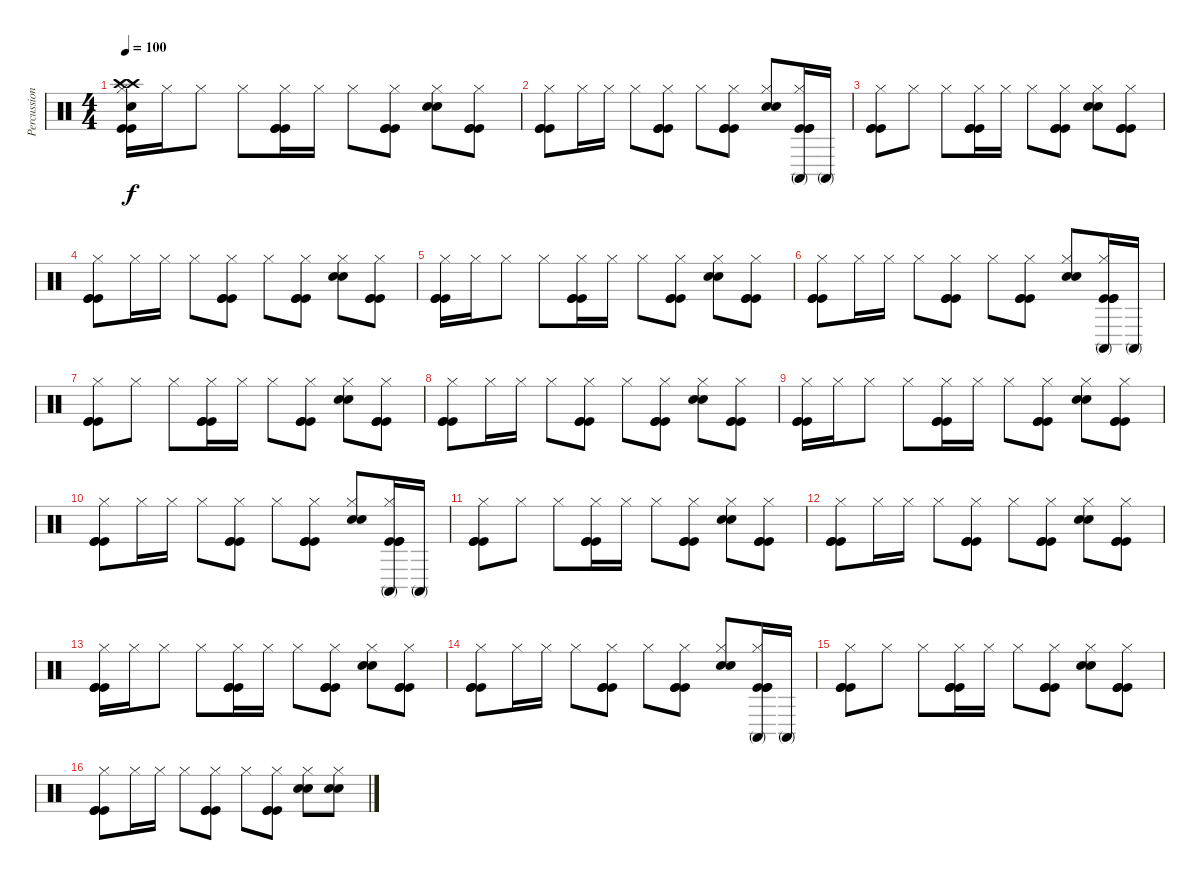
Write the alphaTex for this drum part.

\track ("Percussion" "Percussion") {instrument percussion}
\staff {score}
\articulation defaults
\ts (4 4)
\tempo 100
\clef neutral
\ks c
("Hi-Hat (closed)" "Crash high (hit)" "Crash high (hit)" "Electric Snare (hit)" "Kick (hit)" "Kick (hit)").16{dy f} "Hi-Hat (closed)".16 "Hi-Hat (closed)".8 "Hi-Hat (closed)".8 ("Hi-Hat (closed)" "Kick (hit)" "Kick (hit)" "Kick (hit)").16 "Hi-Hat (closed)".16 "Hi-Hat (closed)".8 ("Hi-Hat (closed)" "Kick (hit)" "Kick (hit)" "Kick (hit)").8 ("Hi-Hat (closed)" "Electric Snare (hit)" "Electric Snare (hit)").8 ("Hi-Hat (closed)" "Kick (hit)" "Kick (hit)" "Kick (hit)").8 |
("Hi-Hat (closed)" "Kick (hit)" "Kick (hit)" "Kick (hit)").8 "Hi-Hat (closed)".16 "Hi-Hat (closed)".16 "Hi-Hat (closed)".8 ("Hi-Hat (closed)" "Kick (hit)" "Kick (hit)" "Kick (hit)").8 "Hi-Hat (closed)".8 ("Hi-Hat (closed)" "Kick (hit)" "Kick (hit)" "Kick (hit)").8 ("Hi-Hat (closed)" "Electric Snare (hit)" "Electric Snare (hit)").8 ("Hi-Hat (closed)" "Conga high (mute)" "Kick (hit)" "Kick (hit)" "Kick (hit)").16 "Conga high (mute)".16 |
("Hi-Hat (closed)" "Kick (hit)" "Kick (hit)" "Kick (hit)").8 "Hi-Hat (closed)".8 "Hi-Hat (closed)".8 ("Hi-Hat (closed)" "Kick (hit)" "Kick (hit)" "Kick (hit)").16 "Hi-Hat (closed)".16 "Hi-Hat (closed)".8 ("Hi-Hat (closed)" "Kick (hit)" "Kick (hit)" "Kick (hit)").8 ("Hi-Hat (closed)" "Electric Snare (hit)" "Electric Snare (hit)").8 ("Hi-Hat (closed)" "Kick (hit)" "Kick (hit)" "Kick (hit)").8 |
("Hi-Hat (closed)" "Kick (hit)" "Kick (hit)" "Kick (hit)").8 "Hi-Hat (closed)".16 "Hi-Hat (closed)".16 "Hi-Hat (closed)".8 ("Hi-Hat (closed)" "Kick (hit)" "Kick (hit)" "Kick (hit)").8 "Hi-Hat (closed)".8 ("Hi-Hat (closed)" "Kick (hit)" "Kick (hit)" "Kick (hit)").8 ("Hi-Hat (closed)" "Electric Snare (hit)" "Electric Snare (hit)").8 ("Hi-Hat (closed)" "Kick (hit)" "Kick (hit)" "Kick (hit)").8 |
("Hi-Hat (closed)" "Kick (hit)" "Kick (hit)" "Kick (hit)").16 "Hi-Hat (closed)".16 "Hi-Hat (closed)".8 "Hi-Hat (closed)".8 ("Hi-Hat (closed)" "Kick (hit)" "Kick (hit)" "Kick (hit)").16 "Hi-Hat (closed)".16 "Hi-Hat (closed)".8 ("Hi-Hat (closed)" "Kick (hit)" "Kick (hit)" "Kick (hit)").8 ("Hi-Hat (closed)" "Electric Snare (hit)" "Electric Snare (hit)").8 ("Hi-Hat (closed)" "Kick (hit)" "Kick (hit)" "Kick (hit)").8 |
("Hi-Hat (closed)" "Kick (hit)" "Kick (hit)" "Kick (hit)").8 "Hi-Hat (closed)".16 "Hi-Hat (closed)".16 "Hi-Hat (closed)".8 ("Hi-Hat (closed)" "Kick (hit)" "Kick (hit)" "Kick (hit)").8 "Hi-Hat (closed)".8 ("Hi-Hat (closed)" "Kick (hit)" "Kick (hit)" "Kick (hit)").8 ("Hi-Hat (closed)" "Electric Snare (hit)" "Electric Snare (hit)").8 ("Hi-Hat (closed)" "Conga high (mute)" "Kick (hit)" "Kick (hit)" "Kick (hit)").16 "Conga high (mute)".16 |
("Hi-Hat (closed)" "Kick (hit)" "Kick (hit)" "Kick (hit)").8 "Hi-Hat (closed)".8 "Hi-Hat (closed)".8 ("Hi-Hat (closed)" "Kick (hit)" "Kick (hit)" "Kick (hit)").16 "Hi-Hat (closed)".16 "Hi-Hat (closed)".8 ("Hi-Hat (closed)" "Kick (hit)" "Kick (hit)" "Kick (hit)").8 ("Hi-Hat (closed)" "Electric Snare (hit)" "Electric Snare (hit)").8 ("Hi-Hat (closed)" "Kick (hit)" "Kick (hit)" "Kick (hit)").8 |
("Hi-Hat (closed)" "Kick (hit)" "Kick (hit)" "Kick (hit)").8 "Hi-Hat (closed)".16 "Hi-Hat (closed)".16 "Hi-Hat (closed)".8 ("Hi-Hat (closed)" "Kick (hit)" "Kick (hit)" "Kick (hit)").8 "Hi-Hat (closed)".8 ("Hi-Hat (closed)" "Kick (hit)" "Kick (hit)" "Kick (hit)").8 ("Hi-Hat (closed)" "Electric Snare (hit)" "Electric Snare (hit)").8 ("Hi-Hat (closed)" "Kick (hit)" "Kick (hit)" "Kick (hit)").8 |
("Hi-Hat (closed)" "Kick (hit)" "Kick (hit)" "Kick (hit)").16 "Hi-Hat (closed)".16 "Hi-Hat (closed)".8 "Hi-Hat (closed)".8 ("Hi-Hat (closed)" "Kick (hit)" "Kick (hit)" "Kick (hit)").16 "Hi-Hat (closed)".16 "Hi-Hat (closed)".8 ("Hi-Hat (closed)" "Kick (hit)" "Kick (hit)" "Kick (hit)").8 ("Hi-Hat (closed)" "Electric Snare (hit)" "Electric Snare (hit)").8 ("Hi-Hat (closed)" "Kick (hit)" "Kick (hit)" "Kick (hit)").8 |
("Hi-Hat (closed)" "Kick (hit)" "Kick (hit)" "Kick (hit)").8 "Hi-Hat (closed)".16 "Hi-Hat (closed)".16 "Hi-Hat (closed)".8 ("Hi-Hat (closed)" "Kick (hit)" "Kick (hit)" "Kick (hit)").8 "Hi-Hat (closed)".8 ("Hi-Hat (closed)" "Kick (hit)" "Kick (hit)" "Kick (hit)").8 ("Hi-Hat (closed)" "Electric Snare (hit)" "Electric Snare (hit)").8 ("Hi-Hat (closed)" "Conga high (mute)" "Kick (hit)" "Kick (hit)" "Kick (hit)").16 "Conga high (mute)".16 |
("Hi-Hat (closed)" "Kick (hit)" "Kick (hit)" "Kick (hit)").8 "Hi-Hat (closed)".8 "Hi-Hat (closed)".8 ("Hi-Hat (closed)" "Kick (hit)" "Kick (hit)" "Kick (hit)").16 "Hi-Hat (closed)".16 "Hi-Hat (closed)".8 ("Hi-Hat (closed)" "Kick (hit)" "Kick (hit)" "Kick (hit)").8 ("Hi-Hat (closed)" "Electric Snare (hit)" "Electric Snare (hit)").8 ("Hi-Hat (closed)" "Kick (hit)" "Kick (hit)" "Kick (hit)").8 |
("Hi-Hat (closed)" "Kick (hit)" "Kick (hit)" "Kick (hit)").8 "Hi-Hat (closed)".16 "Hi-Hat (closed)".16 "Hi-Hat (closed)".8 ("Hi-Hat (closed)" "Kick (hit)" "Kick (hit)" "Kick (hit)").8 "Hi-Hat (closed)".8 ("Hi-Hat (closed)" "Kick (hit)" "Kick (hit)" "Kick (hit)").8 ("Hi-Hat (closed)" "Electric Snare (hit)" "Electric Snare (hit)").8 ("Hi-Hat (closed)" "Kick (hit)" "Kick (hit)" "Kick (hit)").8 |
("Hi-Hat (closed)" "Kick (hit)" "Kick (hit)" "Kick (hit)").16 "Hi-Hat (closed)".16 "Hi-Hat (closed)".8 "Hi-Hat (closed)".8 ("Hi-Hat (closed)" "Kick (hit)" "Kick (hit)" "Kick (hit)").16 "Hi-Hat (closed)".16 "Hi-Hat (closed)".8 ("Hi-Hat (closed)" "Kick (hit)" "Kick (hit)" "Kick (hit)").8 ("Hi-Hat (closed)" "Electric Snare (hit)" "Electric Snare (hit)").8 ("Hi-Hat (closed)" "Kick (hit)" "Kick (hit)" "Kick (hit)").8 |
("Hi-Hat (closed)" "Kick (hit)" "Kick (hit)" "Kick (hit)").8 "Hi-Hat (closed)".16 "Hi-Hat (closed)".16 "Hi-Hat (closed)".8 ("Hi-Hat (closed)" "Kick (hit)" "Kick (hit)" "Kick (hit)").8 "Hi-Hat (closed)".8 ("Hi-Hat (closed)" "Kick (hit)" "Kick (hit)" "Kick (hit)").8 ("Hi-Hat (closed)" "Electric Snare (hit)" "Electric Snare (hit)").8 ("Hi-Hat (closed)" "Conga high (mute)" "Kick (hit)" "Kick (hit)" "Kick (hit)").16 "Conga high (mute)".16 |
("Hi-Hat (closed)" "Kick (hit)" "Kick (hit)" "Kick (hit)").8 "Hi-Hat (closed)".8 "Hi-Hat (closed)".8 ("Hi-Hat (closed)" "Kick (hit)" "Kick (hit)" "Kick (hit)").16 "Hi-Hat (closed)".16 "Hi-Hat (closed)".8 ("Hi-Hat (closed)" "Kick (hit)" "Kick (hit)" "Kick (hit)").8 ("Hi-Hat (closed)" "Electric Snare (hit)" "Electric Snare (hit)").8 ("Hi-Hat (closed)" "Kick (hit)" "Kick (hit)" "Kick (hit)").8 |
("Hi-Hat (closed)" "Kick (hit)" "Kick (hit)" "Kick (hit)").8 "Hi-Hat (closed)".16 "Hi-Hat (closed)".16 "Hi-Hat (closed)".8 ("Hi-Hat (closed)" "Kick (hit)" "Kick (hit)" "Kick (hit)").8 "Hi-Hat (closed)".8 ("Hi-Hat (closed)" "Kick (hit)" "Kick (hit)" "Kick (hit)").8 ("Hi-Hat (closed)" "Electric Snare (hit)" "Electric Snare (hit)").8 ("Hi-Hat (closed)" "Electric Snare (hit)" "Electric Snare (hit)").8
